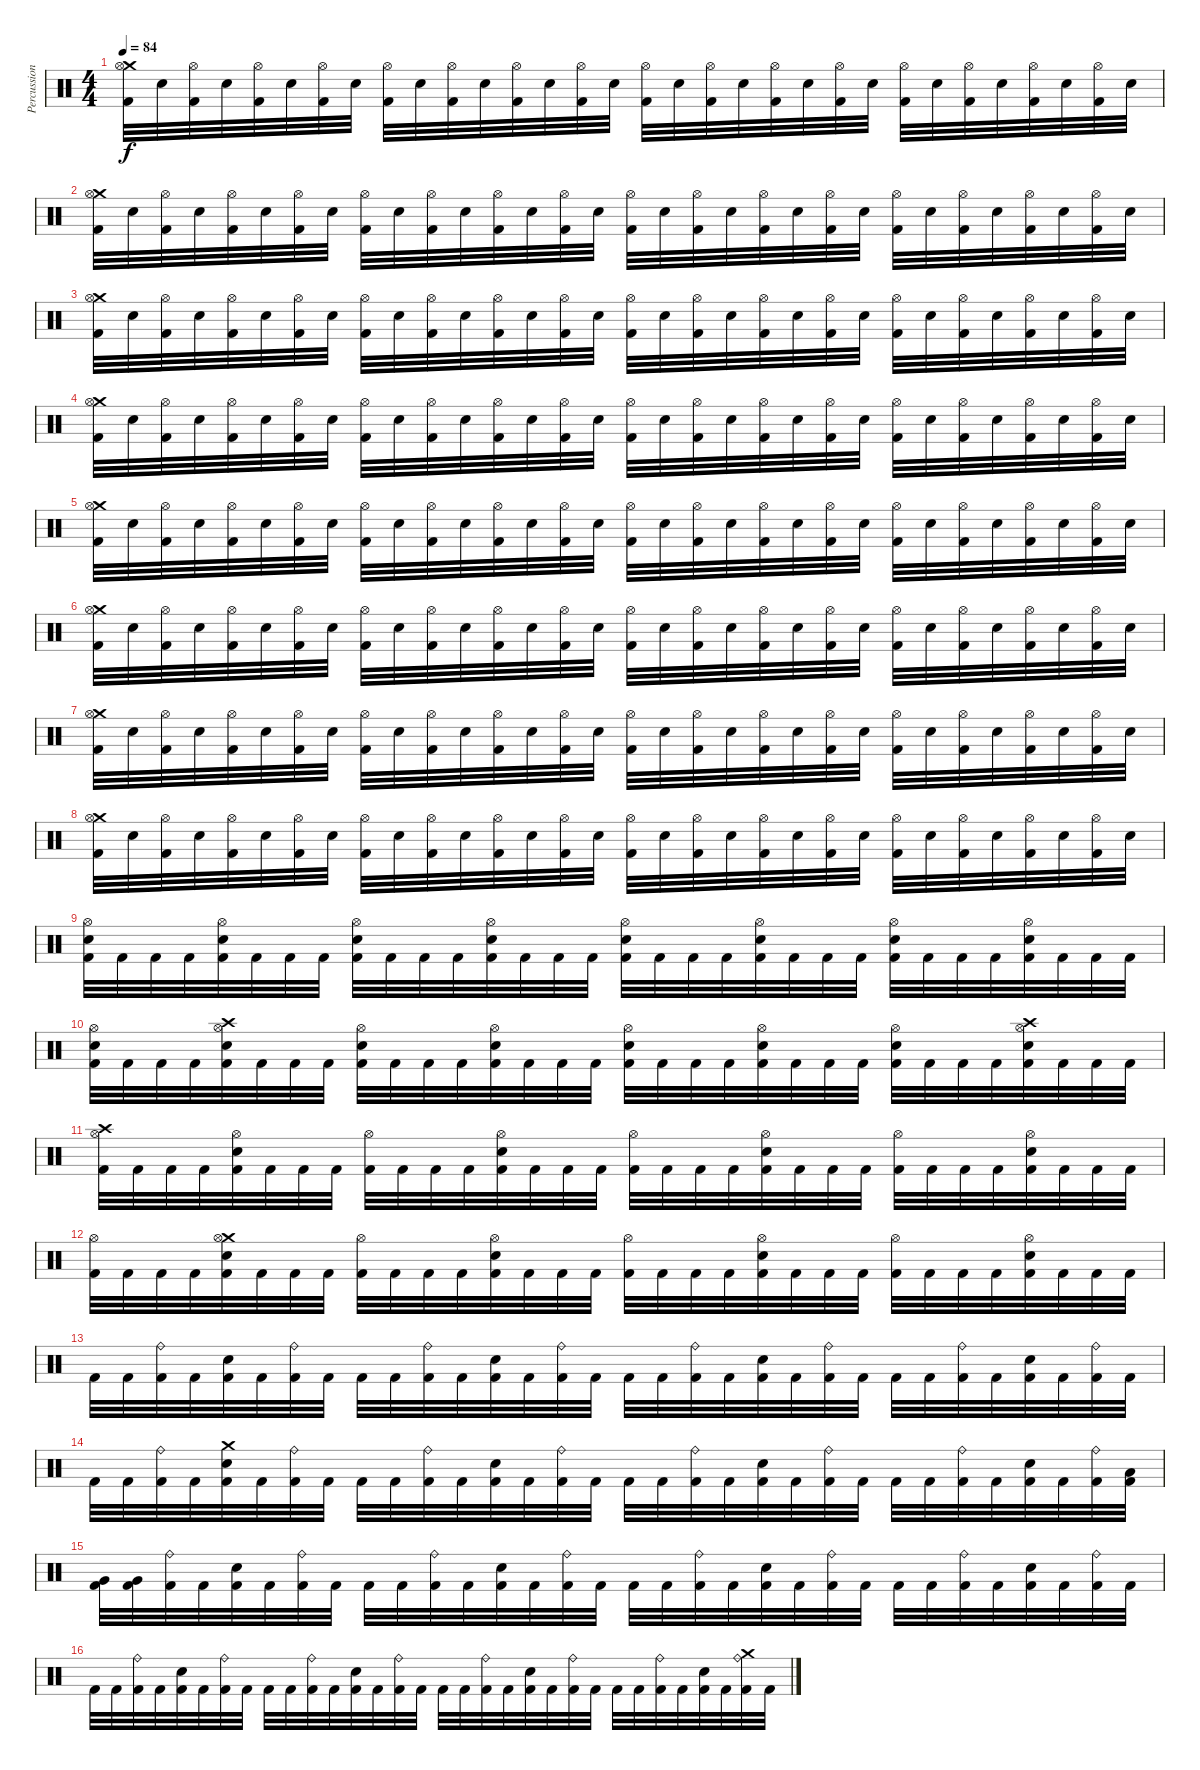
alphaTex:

\track ("Percussion" "Percussion") {instrument percussion}
\staff {score}
\articulation defaults
\ts (4 4)
\tempo 84
\clef neutral
\ks c
("Crash medium (hit)" "Hi-Hat (open)" "Kick (hit) 2").32{dy f} "Snare (hit) 2".32 ("Hi-Hat (open)" "Kick (hit) 2").32 "Snare (hit) 2".32 ("Hi-Hat (open)" "Kick (hit) 2").32 "Snare (hit) 2".32 ("Hi-Hat (open)" "Kick (hit) 2").32 "Snare (hit) 2".32 ("Hi-Hat (open)" "Kick (hit) 2").32 "Snare (hit) 2".32 ("Hi-Hat (open)" "Kick (hit) 2").32 "Snare (hit) 2".32 ("Hi-Hat (open)" "Kick (hit) 2").32 "Snare (hit) 2".32 ("Hi-Hat (open)" "Kick (hit) 2").32 "Snare (hit) 2".32 ("Hi-Hat (open)" "Kick (hit) 2").32 "Snare (hit) 2".32 ("Hi-Hat (open)" "Kick (hit) 2").32 "Snare (hit) 2".32 ("Hi-Hat (open)" "Kick (hit) 2").32 "Snare (hit) 2".32 ("Hi-Hat (open)" "Kick (hit) 2").32 "Snare (hit) 2".32 ("Hi-Hat (open)" "Kick (hit) 2").32 "Snare (hit) 2".32 ("Hi-Hat (open)" "Kick (hit) 2").32 "Snare (hit) 2".32 ("Hi-Hat (open)" "Kick (hit) 2").32 "Snare (hit) 2".32 ("Hi-Hat (open)" "Kick (hit) 2").32 "Snare (hit) 2".32 |
("Crash medium (hit)" "Hi-Hat (open)" "Kick (hit) 2").32 "Snare (hit) 2".32 ("Hi-Hat (open)" "Kick (hit) 2").32 "Snare (hit) 2".32 ("Hi-Hat (open)" "Kick (hit) 2").32 "Snare (hit) 2".32 ("Hi-Hat (open)" "Kick (hit) 2").32 "Snare (hit) 2".32 ("Hi-Hat (open)" "Kick (hit) 2").32 "Snare (hit) 2".32 ("Hi-Hat (open)" "Kick (hit) 2").32 "Snare (hit) 2".32 ("Hi-Hat (open)" "Kick (hit) 2").32 "Snare (hit) 2".32 ("Hi-Hat (open)" "Kick (hit) 2").32 "Snare (hit) 2".32 ("Hi-Hat (open)" "Kick (hit) 2").32 "Snare (hit) 2".32 ("Hi-Hat (open)" "Kick (hit) 2").32 "Snare (hit) 2".32 ("Hi-Hat (open)" "Kick (hit) 2").32 "Snare (hit) 2".32 ("Hi-Hat (open)" "Kick (hit) 2").32 "Snare (hit) 2".32 ("Hi-Hat (open)" "Kick (hit) 2").32 "Snare (hit) 2".32 ("Hi-Hat (open)" "Kick (hit) 2").32 "Snare (hit) 2".32 ("Hi-Hat (open)" "Kick (hit) 2").32 "Snare (hit) 2".32 ("Hi-Hat (open)" "Kick (hit) 2").32 "Snare (hit) 2".32 |
("Crash medium (hit)" "Hi-Hat (open)" "Kick (hit) 2").32 "Snare (hit) 2".32 ("Hi-Hat (open)" "Kick (hit) 2").32 "Snare (hit) 2".32 ("Hi-Hat (open)" "Kick (hit) 2").32 "Snare (hit) 2".32 ("Hi-Hat (open)" "Kick (hit) 2").32 "Snare (hit) 2".32 ("Hi-Hat (open)" "Kick (hit) 2").32 "Snare (hit) 2".32 ("Hi-Hat (open)" "Kick (hit) 2").32 "Snare (hit) 2".32 ("Hi-Hat (open)" "Kick (hit) 2").32 "Snare (hit) 2".32 ("Hi-Hat (open)" "Kick (hit) 2").32 "Snare (hit) 2".32 ("Hi-Hat (open)" "Kick (hit) 2").32 "Snare (hit) 2".32 ("Hi-Hat (open)" "Kick (hit) 2").32 "Snare (hit) 2".32 ("Hi-Hat (open)" "Kick (hit) 2").32 "Snare (hit) 2".32 ("Hi-Hat (open)" "Kick (hit) 2").32 "Snare (hit) 2".32 ("Hi-Hat (open)" "Kick (hit) 2").32 "Snare (hit) 2".32 ("Hi-Hat (open)" "Kick (hit) 2").32 "Snare (hit) 2".32 ("Hi-Hat (open)" "Kick (hit) 2").32 "Snare (hit) 2".32 ("Hi-Hat (open)" "Kick (hit) 2").32 "Snare (hit) 2".32 |
("Crash medium (hit)" "Hi-Hat (open)" "Kick (hit) 2").32 "Snare (hit) 2".32 ("Hi-Hat (open)" "Kick (hit) 2").32 "Snare (hit) 2".32 ("Hi-Hat (open)" "Kick (hit) 2").32 "Snare (hit) 2".32 ("Hi-Hat (open)" "Kick (hit) 2").32 "Snare (hit) 2".32 ("Hi-Hat (open)" "Kick (hit) 2").32 "Snare (hit) 2".32 ("Hi-Hat (open)" "Kick (hit) 2").32 "Snare (hit) 2".32 ("Hi-Hat (open)" "Kick (hit) 2").32 "Snare (hit) 2".32 ("Hi-Hat (open)" "Kick (hit) 2").32 "Snare (hit) 2".32 ("Hi-Hat (open)" "Kick (hit) 2").32 "Snare (hit) 2".32 ("Hi-Hat (open)" "Kick (hit) 2").32 "Snare (hit) 2".32 ("Hi-Hat (open)" "Kick (hit) 2").32 "Snare (hit) 2".32 ("Hi-Hat (open)" "Kick (hit) 2").32 "Snare (hit) 2".32 ("Hi-Hat (open)" "Kick (hit) 2").32 "Snare (hit) 2".32 ("Hi-Hat (open)" "Kick (hit) 2").32 "Snare (hit) 2".32 ("Hi-Hat (open)" "Kick (hit) 2").32 "Snare (hit) 2".32 ("Hi-Hat (open)" "Kick (hit) 2").32 "Snare (hit) 2".32 |
("Crash medium (hit)" "Hi-Hat (open)" "Kick (hit) 2").32 "Snare (hit) 2".32 ("Hi-Hat (open)" "Kick (hit) 2").32 "Snare (hit) 2".32 ("Hi-Hat (open)" "Kick (hit) 2").32 "Snare (hit) 2".32 ("Hi-Hat (open)" "Kick (hit) 2").32 "Snare (hit) 2".32 ("Hi-Hat (open)" "Kick (hit) 2").32 "Snare (hit) 2".32 ("Hi-Hat (open)" "Kick (hit) 2").32 "Snare (hit) 2".32 ("Hi-Hat (open)" "Kick (hit) 2").32 "Snare (hit) 2".32 ("Hi-Hat (open)" "Kick (hit) 2").32 "Snare (hit) 2".32 ("Hi-Hat (open)" "Kick (hit) 2").32 "Snare (hit) 2".32 ("Hi-Hat (open)" "Kick (hit) 2").32 "Snare (hit) 2".32 ("Hi-Hat (open)" "Kick (hit) 2").32 "Snare (hit) 2".32 ("Hi-Hat (open)" "Kick (hit) 2").32 "Snare (hit) 2".32 ("Hi-Hat (open)" "Kick (hit) 2").32 "Snare (hit) 2".32 ("Hi-Hat (open)" "Kick (hit) 2").32 "Snare (hit) 2".32 ("Hi-Hat (open)" "Kick (hit) 2").32 "Snare (hit) 2".32 ("Hi-Hat (open)" "Kick (hit) 2").32 "Snare (hit) 2".32 |
("Crash medium (hit)" "Hi-Hat (open)" "Kick (hit) 2").32 "Snare (hit) 2".32 ("Hi-Hat (open)" "Kick (hit) 2").32 "Snare (hit) 2".32 ("Hi-Hat (open)" "Kick (hit) 2").32 "Snare (hit) 2".32 ("Hi-Hat (open)" "Kick (hit) 2").32 "Snare (hit) 2".32 ("Hi-Hat (open)" "Kick (hit) 2").32 "Snare (hit) 2".32 ("Hi-Hat (open)" "Kick (hit) 2").32 "Snare (hit) 2".32 ("Hi-Hat (open)" "Kick (hit) 2").32 "Snare (hit) 2".32 ("Hi-Hat (open)" "Kick (hit) 2").32 "Snare (hit) 2".32 ("Hi-Hat (open)" "Kick (hit) 2").32 "Snare (hit) 2".32 ("Hi-Hat (open)" "Kick (hit) 2").32 "Snare (hit) 2".32 ("Hi-Hat (open)" "Kick (hit) 2").32 "Snare (hit) 2".32 ("Hi-Hat (open)" "Kick (hit) 2").32 "Snare (hit) 2".32 ("Hi-Hat (open)" "Kick (hit) 2").32 "Snare (hit) 2".32 ("Hi-Hat (open)" "Kick (hit) 2").32 "Snare (hit) 2".32 ("Hi-Hat (open)" "Kick (hit) 2").32 "Snare (hit) 2".32 ("Hi-Hat (open)" "Kick (hit) 2").32 "Snare (hit) 2".32 |
("Crash medium (hit)" "Hi-Hat (open)" "Kick (hit) 2").32 "Snare (hit) 2".32 ("Hi-Hat (open)" "Kick (hit) 2").32 "Snare (hit) 2".32 ("Hi-Hat (open)" "Kick (hit) 2").32 "Snare (hit) 2".32 ("Hi-Hat (open)" "Kick (hit) 2").32 "Snare (hit) 2".32 ("Hi-Hat (open)" "Kick (hit) 2").32 "Snare (hit) 2".32 ("Hi-Hat (open)" "Kick (hit) 2").32 "Snare (hit) 2".32 ("Hi-Hat (open)" "Kick (hit) 2").32 "Snare (hit) 2".32 ("Hi-Hat (open)" "Kick (hit) 2").32 "Snare (hit) 2".32 ("Hi-Hat (open)" "Kick (hit) 2").32 "Snare (hit) 2".32 ("Hi-Hat (open)" "Kick (hit) 2").32 "Snare (hit) 2".32 ("Hi-Hat (open)" "Kick (hit) 2").32 "Snare (hit) 2".32 ("Hi-Hat (open)" "Kick (hit) 2").32 "Snare (hit) 2".32 ("Hi-Hat (open)" "Kick (hit) 2").32 "Snare (hit) 2".32 ("Hi-Hat (open)" "Kick (hit) 2").32 "Snare (hit) 2".32 ("Hi-Hat (open)" "Kick (hit) 2").32 "Snare (hit) 2".32 ("Hi-Hat (open)" "Kick (hit) 2").32 "Snare (hit) 2".32 |
("Crash medium (hit)" "Hi-Hat (open)" "Kick (hit) 2").32 "Snare (hit) 2".32 ("Hi-Hat (open)" "Kick (hit) 2").32 "Snare (hit) 2".32 ("Hi-Hat (open)" "Kick (hit) 2").32 "Snare (hit) 2".32 ("Hi-Hat (open)" "Kick (hit) 2").32 "Snare (hit) 2".32 ("Hi-Hat (open)" "Kick (hit) 2").32 "Snare (hit) 2".32 ("Hi-Hat (open)" "Kick (hit) 2").32 "Snare (hit) 2".32 ("Hi-Hat (open)" "Kick (hit) 2").32 "Snare (hit) 2".32 ("Hi-Hat (open)" "Kick (hit) 2").32 "Snare (hit) 2".32 ("Hi-Hat (open)" "Kick (hit) 2").32 "Snare (hit) 2".32 ("Hi-Hat (open)" "Kick (hit) 2").32 "Snare (hit) 2".32 ("Hi-Hat (open)" "Kick (hit) 2").32 "Snare (hit) 2".32 ("Hi-Hat (open)" "Kick (hit) 2").32 "Snare (hit) 2".32 ("Hi-Hat (open)" "Kick (hit) 2").32 "Snare (hit) 2".32 ("Hi-Hat (open)" "Kick (hit) 2").32 "Snare (hit) 2".32 ("Hi-Hat (open)" "Kick (hit) 2").32 "Snare (hit) 2".32 ("Hi-Hat (open)" "Kick (hit) 2").32 "Snare (hit) 2".32 |
("Hi-Hat (open)" "Snare (hit) 2" "Kick (hit) 2").32 "Kick (hit) 2".32 "Kick (hit) 2".32 "Kick (hit) 2".32 ("Hi-Hat (open)" "Snare (hit) 2" "Kick (hit) 2").32 "Kick (hit) 2".32 "Kick (hit) 2".32 "Kick (hit) 2".32 ("Hi-Hat (open)" "Snare (hit) 2" "Kick (hit) 2").32 "Kick (hit) 2".32 "Kick (hit) 2".32 "Kick (hit) 2".32 ("Hi-Hat (open)" "Snare (hit) 2" "Kick (hit) 2").32 "Kick (hit) 2".32 "Kick (hit) 2".32 "Kick (hit) 2".32 ("Hi-Hat (open)" "Snare (hit) 2" "Kick (hit) 2").32 "Kick (hit) 2".32 "Kick (hit) 2".32 "Kick (hit) 2".32 ("Hi-Hat (open)" "Snare (hit) 2" "Kick (hit) 2").32 "Kick (hit) 2".32 "Kick (hit) 2".32 "Kick (hit) 2".32 ("Hi-Hat (open)" "Snare (hit) 2" "Kick (hit) 2").32 "Kick (hit) 2".32 "Kick (hit) 2".32 "Kick (hit) 2".32 ("Hi-Hat (open)" "Snare (hit) 2" "Kick (hit) 2").32 "Kick (hit) 2".32 "Kick (hit) 2".32 "Kick (hit) 2".32 |
("Hi-Hat (open)" "Snare (hit) 2" "Kick (hit) 2").32 "Kick (hit) 2".32 "Kick (hit) 2".32 "Kick (hit) 2".32 ("Crash high (hit)" "Hi-Hat (open)" "Snare (hit) 2" "Kick (hit) 2").32 "Kick (hit) 2".32 "Kick (hit) 2".32 "Kick (hit) 2".32 ("Hi-Hat (open)" "Snare (hit) 2" "Kick (hit) 2").32 "Kick (hit) 2".32 "Kick (hit) 2".32 "Kick (hit) 2".32 ("Hi-Hat (open)" "Snare (hit) 2" "Kick (hit) 2").32 "Kick (hit) 2".32 "Kick (hit) 2".32 "Kick (hit) 2".32 ("Hi-Hat (open)" "Snare (hit) 2" "Kick (hit) 2").32 "Kick (hit) 2".32 "Kick (hit) 2".32 "Kick (hit) 2".32 ("Hi-Hat (open)" "Snare (hit) 2" "Kick (hit) 2").32 "Kick (hit) 2".32 "Kick (hit) 2".32 "Kick (hit) 2".32 ("Hi-Hat (open)" "Snare (hit) 2" "Kick (hit) 2").32 "Kick (hit) 2".32 "Kick (hit) 2".32 "Kick (hit) 2".32 ("Crash high (hit)" "Hi-Hat (open)" "Snare (hit) 2" "Kick (hit) 2").32 "Kick (hit) 2".32 "Kick (hit) 2".32 "Kick (hit) 2".32 |
("Crash high (hit)" "Hi-Hat (open)" "Kick (hit) 2").32 "Kick (hit) 2".32 "Kick (hit) 2".32 "Kick (hit) 2".32 ("Hi-Hat (open)" "Snare (hit) 2" "Kick (hit) 2").32 "Kick (hit) 2".32 "Kick (hit) 2".32 "Kick (hit) 2".32 ("Hi-Hat (open)" "Kick (hit) 2").32 "Kick (hit) 2".32 "Kick (hit) 2".32 "Kick (hit) 2".32 ("Hi-Hat (open)" "Snare (hit) 2" "Kick (hit) 2").32 "Kick (hit) 2".32 "Kick (hit) 2".32 "Kick (hit) 2".32 ("Hi-Hat (open)" "Kick (hit) 2").32 "Kick (hit) 2".32 "Kick (hit) 2".32 "Kick (hit) 2".32 ("Hi-Hat (open)" "Snare (hit) 2" "Kick (hit) 2").32 "Kick (hit) 2".32 "Kick (hit) 2".32 "Kick (hit) 2".32 ("Hi-Hat (open)" "Kick (hit) 2").32 "Kick (hit) 2".32 "Kick (hit) 2".32 "Kick (hit) 2".32 ("Hi-Hat (open)" "Snare (hit) 2" "Kick (hit) 2").32 "Kick (hit) 2".32 "Kick (hit) 2".32 "Kick (hit) 2".32 |
("Hi-Hat (open)" "Kick (hit) 2").32 "Kick (hit) 2".32 "Kick (hit) 2".32 "Kick (hit) 2".32 ("Crash medium (hit)" "Hi-Hat (open)" "Snare (hit) 2" "Kick (hit) 2").32 "Kick (hit) 2".32 "Kick (hit) 2".32 "Kick (hit) 2".32 ("Hi-Hat (open)" "Kick (hit) 2").32 "Kick (hit) 2".32 "Kick (hit) 2".32 "Kick (hit) 2".32 ("Hi-Hat (open)" "Snare (hit) 2" "Kick (hit) 2").32 "Kick (hit) 2".32 "Kick (hit) 2".32 "Kick (hit) 2".32 ("Hi-Hat (open)" "Kick (hit) 2").32 "Kick (hit) 2".32 "Kick (hit) 2".32 "Kick (hit) 2".32 ("Hi-Hat (open)" "Snare (hit) 2" "Kick (hit) 2").32 "Kick (hit) 2".32 "Kick (hit) 2".32 "Kick (hit) 2".32 ("Hi-Hat (open)" "Kick (hit) 2").32 "Kick (hit) 2".32 "Kick (hit) 2".32 "Kick (hit) 2".32 ("Hi-Hat (open)" "Snare (hit) 2" "Kick (hit) 2").32 "Kick (hit) 2".32 "Kick (hit) 2".32 "Kick (hit) 2".32 |
"Kick (hit) 2".32 "Kick (hit) 2".32 ("Ride (bell)" "Kick (hit) 2").32 "Kick (hit) 2".32 ("Snare (hit) 2" "Kick (hit) 2").32 "Kick (hit) 2".32 ("Ride (bell)" "Kick (hit) 2").32 "Kick (hit) 2".32 "Kick (hit) 2".32 "Kick (hit) 2".32 ("Ride (bell)" "Kick (hit) 2").32 "Kick (hit) 2".32 ("Snare (hit) 2" "Kick (hit) 2").32 "Kick (hit) 2".32 ("Ride (bell)" "Kick (hit) 2").32 "Kick (hit) 2".32 "Kick (hit) 2".32 "Kick (hit) 2".32 ("Ride (bell)" "Kick (hit) 2").32 "Kick (hit) 2".32 ("Snare (hit) 2" "Kick (hit) 2").32 "Kick (hit) 2".32 ("Ride (bell)" "Kick (hit) 2").32 "Kick (hit) 2".32 "Kick (hit) 2".32 "Kick (hit) 2".32 ("Ride (bell)" "Kick (hit) 2").32 "Kick (hit) 2".32 ("Snare (hit) 2" "Kick (hit) 2").32 "Kick (hit) 2".32 ("Ride (bell)" "Kick (hit) 2").32 "Kick (hit) 2".32 |
"Kick (hit) 2".32 "Kick (hit) 2".32 ("Ride (bell)" "Kick (hit) 2").32 "Kick (hit) 2".32 ("Crash medium (hit)" "Snare (hit) 2" "Kick (hit) 2").32 "Kick (hit) 2".32 ("Ride (bell)" "Kick (hit) 2").32 "Kick (hit) 2".32 "Kick (hit) 2".32 "Kick (hit) 2".32 ("Ride (bell)" "Kick (hit) 2").32 "Kick (hit) 2".32 ("Snare (hit) 2" "Kick (hit) 2").32 "Kick (hit) 2".32 ("Ride (bell)" "Kick (hit) 2").32 "Kick (hit) 2".32 "Kick (hit) 2".32 "Kick (hit) 2".32 ("Ride (bell)" "Kick (hit) 2").32 "Kick (hit) 2".32 ("Snare (hit) 2" "Kick (hit) 2").32 "Kick (hit) 2".32 ("Ride (bell)" "Kick (hit) 2").32 "Kick (hit) 2".32 "Kick (hit) 2".32 "Kick (hit) 2".32 ("Ride (bell)" "Kick (hit) 2").32 "Kick (hit) 2".32 ("Snare (hit) 2" "Kick (hit) 2").32 "Kick (hit) 2".32 ("Ride (bell)" "Kick (hit) 2").32 ("Low Tom (hit)" "Kick (hit) 2").32 |
("Very Low Tom (hit)" "Kick (hit) 2").32 ("Very Low Tom (hit)" "Kick (hit) 2").32 ("Ride (bell)" "Kick (hit) 2").32 "Kick (hit) 2".32 ("Snare (hit) 2" "Kick (hit) 2").32 "Kick (hit) 2".32 ("Ride (bell)" "Kick (hit) 2").32 "Kick (hit) 2".32 "Kick (hit) 2".32 "Kick (hit) 2".32 ("Ride (bell)" "Kick (hit) 2").32 "Kick (hit) 2".32 ("Snare (hit) 2" "Kick (hit) 2").32 "Kick (hit) 2".32 ("Ride (bell)" "Kick (hit) 2").32 "Kick (hit) 2".32 "Kick (hit) 2".32 "Kick (hit) 2".32 ("Ride (bell)" "Kick (hit) 2").32 "Kick (hit) 2".32 ("Snare (hit) 2" "Kick (hit) 2").32 "Kick (hit) 2".32 ("Ride (bell)" "Kick (hit) 2").32 "Kick (hit) 2".32 "Kick (hit) 2".32 "Kick (hit) 2".32 ("Ride (bell)" "Kick (hit) 2").32 "Kick (hit) 2".32 ("Snare (hit) 2" "Kick (hit) 2").32 "Kick (hit) 2".32 ("Ride (bell)" "Kick (hit) 2").32 "Kick (hit) 2".32 |
"Kick (hit) 2".32 "Kick (hit) 2".32 ("Ride (bell)" "Kick (hit) 2").32 "Kick (hit) 2".32 ("Snare (hit) 2" "Kick (hit) 2").32 "Kick (hit) 2".32 ("Ride (bell)" "Kick (hit) 2").32 "Kick (hit) 2".32 "Kick (hit) 2".32 "Kick (hit) 2".32 ("Ride (bell)" "Kick (hit) 2").32 "Kick (hit) 2".32 ("Snare (hit) 2" "Kick (hit) 2").32 "Kick (hit) 2".32 ("Ride (bell)" "Kick (hit) 2").32 "Kick (hit) 2".32 "Kick (hit) 2".32 "Kick (hit) 2".32 ("Ride (bell)" "Kick (hit) 2").32 "Kick (hit) 2".32 ("Snare (hit) 2" "Kick (hit) 2").32 "Kick (hit) 2".32 ("Ride (bell)" "Kick (hit) 2").32 "Kick (hit) 2".32 "Kick (hit) 2".32 "Kick (hit) 2".32 ("Ride (bell)" "Kick (hit) 2").32 "Kick (hit) 2".32 ("Snare (hit) 2" "Kick (hit) 2").32 "Kick (hit) 2".32 ("Crash medium (hit)" "Ride (bell)" "Kick (hit) 2").32 "Kick (hit) 2".32
